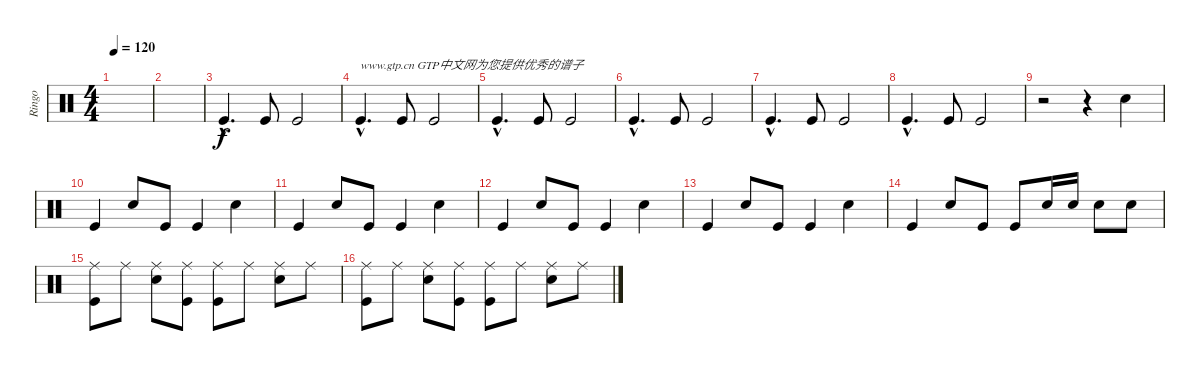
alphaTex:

\track ("Ringo" "Ringo") {instrument percussion}
\staff {score}
\articulation defaults
\ts (4 4)
\tempo 120
\clef neutral
\ks c
|
|
"Kick (hit)"{hac}.4{d} "Kick (hit)".8 "Kick (hit)".2 |
"Kick (hit)"{hac}.4{d txt "www.gtp.cn GTP中文网为您提供优秀的谱子"} "Kick (hit)".8 "Kick (hit)".2 |
"Kick (hit)"{hac}.4{d} "Kick (hit)".8 "Kick (hit)".2 |
"Kick (hit)"{hac}.4{d} "Kick (hit)".8 "Kick (hit)".2 |
"Kick (hit)"{hac}.4{d} "Kick (hit)".8 "Kick (hit)".2 |
"Kick (hit)"{hac}.4{d} "Kick (hit)".8 "Kick (hit)".2 |
r.2 r.4 "Snare (hit) 2".4 |
"Kick (hit)".4 "Snare (hit) 2".8 "Kick (hit)".8 "Kick (hit)".4 "Snare (hit) 2".4 |
"Kick (hit)".4 "Snare (hit) 2".8 "Kick (hit)".8 "Kick (hit)".4 "Snare (hit) 2".4 |
"Kick (hit)".4 "Snare (hit) 2".8 "Kick (hit)".8 "Kick (hit)".4 "Snare (hit) 2".4 |
"Kick (hit)".4 "Snare (hit) 2".8 "Kick (hit)".8 "Kick (hit)".4 "Snare (hit) 2".4 |
"Kick (hit)".4 "Snare (hit) 2".8 "Kick (hit)".8 "Kick (hit)".8 "Snare (hit) 2".16 "Snare (hit) 2".16 "Snare (hit) 2".8 "Snare (hit) 2".8 |
("Ride (middle)" "Kick (hit)").8 "Ride (middle)".8 ("Ride (middle)" "Snare (hit) 2").8 ("Ride (middle)" "Kick (hit)").8 ("Ride (middle)" "Kick (hit)").8 "Ride (middle)".8 ("Ride (middle)" "Snare (hit) 2").8 "Ride (middle)".8 |
("Ride (middle)" "Kick (hit)").8 "Ride (middle)".8 ("Ride (middle)" "Snare (hit) 2").8 ("Ride (middle)" "Kick (hit)").8 ("Ride (middle)" "Kick (hit)").8 "Ride (middle)".8 ("Ride (middle)" "Snare (hit) 2").8 "Ride (middle)".8
